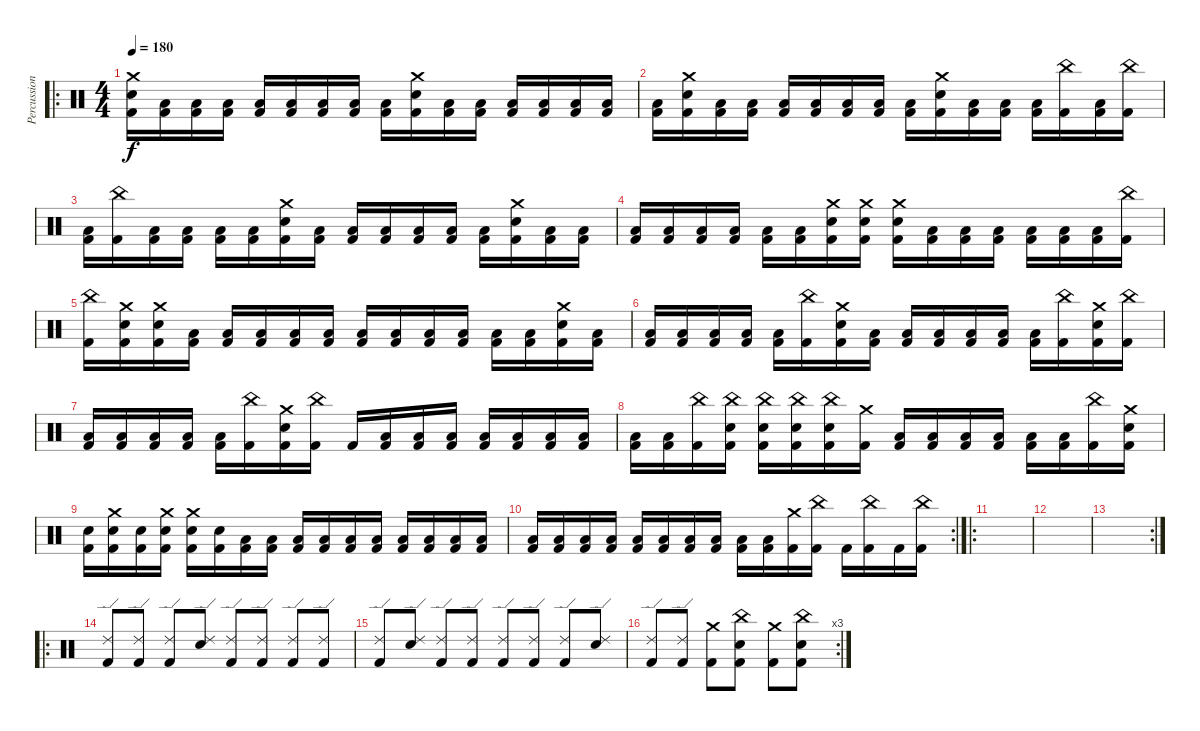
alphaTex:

\track ("Percussion" "Percussion") {instrument percussion}
\staff {score}
\articulation defaults
\ro
\ts (4 4)
\tempo 180
\clef neutral
\ks c
("Kick (hit) 2" "Snare (hit) 2" "Crash medium (hit)").16{dy f} ("Kick (hit) 2" "Low Tom (hit)").16 ("Kick (hit) 2" "Low Tom (hit)").16 ("Kick (hit) 2" "Low Floor Tom (hit)").16 ("Kick (hit) 2" "Low Floor Tom (hit)").16 ("Kick (hit) 2" "Low Tom (hit)").16 ("Kick (hit) 2" "Low Tom (hit)").16 ("Kick (hit) 2" "Low Floor Tom (hit)").16 ("Kick (hit) 2" "Low Floor Tom (hit)").16 ("Kick (hit) 2" "Snare (hit) 2" "Crash medium (hit)").16 ("Kick (hit) 2" "Low Tom (hit)").16 ("Kick (hit) 2" "Low Tom (hit)").16 ("Kick (hit) 2" "Low Floor Tom (hit)").16 ("Kick (hit) 2" "Low Floor Tom (hit)").16 ("Kick (hit) 2" "Low Tom (hit)").16 ("Kick (hit) 2" "Low Tom (hit)").16 |
("Kick (hit) 2" "Low Floor Tom (hit)").16 ("Kick (hit) 2" "Snare (hit) 2" "Crash medium (hit)").16 ("Kick (hit) 2" "Low Floor Tom (hit)").16 ("Kick (hit) 2" "Low Floor Tom (hit)").16 ("Kick (hit) 2" "Low Tom (hit)").16 ("Kick (hit) 2" "Low Tom (hit)").16 ("Kick (hit) 2" "Low Floor Tom (hit)").16 ("Kick (hit) 2" "Low Floor Tom (hit)").16 ("Kick (hit) 2" "Low Tom (hit)").16 ("Kick (hit) 2" "Snare (hit) 2" "Crash medium (hit)").16 ("Kick (hit) 2" "Low Tom (hit)").16 ("Kick (hit) 2" "Low Tom (hit)").16 ("Kick (hit) 2" "Low Floor Tom (hit)").16 ("Kick (hit) 2" "China (hit)").16 ("Kick (hit) 2" "Low Floor Tom (hit)").16 ("Kick (hit) 2" "China (hit)").16 |
("Kick (hit) 2" "Low Tom (hit)").16 ("Kick (hit) 2" "China (hit)").16 ("Kick (hit) 2" "Low Tom (hit)").16 ("Kick (hit) 2" "Low Floor Tom (hit)").16 ("Kick (hit) 2" "Low Floor Tom (hit)").16 ("Kick (hit) 2" "Low Tom (hit)").16 ("Kick (hit) 2" "Snare (hit) 2" "Crash medium (hit)").16 ("Kick (hit) 2" "Low Tom (hit)").16 ("Kick (hit) 2" "Low Floor Tom (hit)").16 ("Kick (hit) 2" "Low Floor Tom (hit)").16 ("Kick (hit) 2" "Low Tom (hit)").16 ("Kick (hit) 2" "Low Tom (hit)").16 ("Kick (hit) 2" "Low Tom (hit)").16 ("Kick (hit) 2" "Snare (hit) 2" "Crash medium (hit)").16 ("Kick (hit) 2" "Low Floor Tom (hit)").16 ("Kick (hit) 2" "Low Floor Tom (hit)").16 |
("Kick (hit) 2" "Low Tom (hit)").16 ("Kick (hit) 2" "Low Tom (hit)").16 ("Kick (hit) 2" "Low Tom (hit)").16 ("Kick (hit) 2" "Low Floor Tom (hit)").16 ("Kick (hit) 2" "Low Floor Tom (hit)").16 ("Kick (hit) 2" "Low Floor Tom (hit)").16 ("Kick (hit) 2" "Snare (hit) 2" "Crash medium (hit)").16 ("Kick (hit) 2" "Snare (hit) 2" "Crash medium (hit)").16 ("Kick (hit) 2" "Snare (hit) 2" "Crash medium (hit)").16 ("Kick (hit) 2" "Low Tom (hit)").16 ("Kick (hit) 2" "Low Tom (hit)").16 ("Kick (hit) 2" "Low Tom (hit)").16 ("Kick (hit) 2" "Low Floor Tom (hit)").16 ("Kick (hit) 2" "Low Floor Tom (hit)").16 ("Kick (hit) 2" "Low Floor Tom (hit)").16 ("Kick (hit) 2" "China (hit)").16 |
("Kick (hit) 2" "China (hit)").16 ("Kick (hit) 2" "Snare (hit) 2" "Crash medium (hit)").16 ("Kick (hit) 2" "Snare (hit) 2" "Crash medium (hit)").16 ("Kick (hit) 2" "Low Tom (hit)").16 ("Kick (hit) 2" "Low Tom (hit)").16 ("Kick (hit) 2" "Low Tom (hit)").16 ("Kick (hit) 2" "Low Floor Tom (hit)").16 ("Kick (hit) 2" "Low Floor Tom (hit)").16 ("Kick (hit) 2" "Low Floor Tom (hit)").16 ("Kick (hit) 2" "Low Floor Tom (hit)").16 ("Kick (hit) 2" "Low Tom (hit)").16 ("Kick (hit) 2" "Low Tom (hit)").16 ("Kick (hit) 2" "Low Tom (hit)").16 ("Kick (hit) 2" "Low Tom (hit)").16 ("Kick (hit) 2" "Snare (hit) 2" "Crash medium (hit)").16 ("Kick (hit) 2" "Low Floor Tom (hit)").16 |
("Kick (hit) 2" "Low Floor Tom (hit)").16 ("Kick (hit) 2" "Low Floor Tom (hit)").16 ("Kick (hit) 2" "Low Tom (hit)").16 ("Kick (hit) 2" "Low Tom (hit)").16 ("Kick (hit) 2" "Low Tom (hit)").16 ("Kick (hit) 2" "China (hit)").16 ("Kick (hit) 2" "Snare (hit) 2" "Crash medium (hit)").16 ("Kick (hit) 2" "Low Tom (hit)").16 ("Kick (hit) 2" "Low Tom (hit)").16 ("Kick (hit) 2" "Low Tom (hit)").16 ("Kick (hit) 2" "Low Floor Tom (hit)").16 ("Kick (hit) 2" "Low Floor Tom (hit)").16 ("Kick (hit) 2" "Low Floor Tom (hit)").16 ("Kick (hit) 2" "China (hit)").16 ("Kick (hit) 2" "Snare (hit) 2" "Crash medium (hit)").16 ("Kick (hit) 2" "China (hit)").16 |
("Kick (hit) 2" "Low Floor Tom (hit)").16 ("Kick (hit) 2" "Low Floor Tom (hit)").16 ("Kick (hit) 2" "Low Floor Tom (hit)").16 ("Kick (hit) 2" "Low Tom (hit)").16 ("Kick (hit) 2" "Low Tom (hit)").16 ("Kick (hit) 2" "China (hit)").16 ("Kick (hit) 2" "Snare (hit) 2" "Crash medium (hit)").16 ("Kick (hit) 2" "China (hit)").16 "Kick (hit) 2".16 ("Kick (hit) 2" "Low Tom (hit)").16 ("Kick (hit) 2" "Low Tom (hit)").16 ("Kick (hit) 2" "Low Tom (hit)").16 ("Kick (hit) 2" "Low Tom (hit)").16 ("Kick (hit) 2" "Low Floor Tom (hit)").16 ("Kick (hit) 2" "Low Floor Tom (hit)").16 ("Kick (hit) 2" "Low Floor Tom (hit)").16 |
("Kick (hit) 2" "Low Tom (hit)").16 ("Kick (hit) 2" "Low Tom (hit)").16 ("Kick (hit) 2" "China (hit)").16 ("Kick (hit) 2" "Snare (hit) 2" "China (hit)").16 ("Kick (hit) 2" "Snare (hit) 2" "China (hit)").16 ("Kick (hit) 2" "Snare (hit) 2" "China (hit)").16 ("Kick (hit) 2" "Snare (hit) 2" "China (hit)").16 ("Kick (hit) 2" "Crash medium (hit)").16 ("Kick (hit) 2" "Low Tom (hit)").16 ("Kick (hit) 2" "Low Tom (hit)").16 ("Kick (hit) 2" "Low Tom (hit)").16 ("Kick (hit) 2" "Low Floor Tom (hit)").16 ("Kick (hit) 2" "Low Floor Tom (hit)").16 ("Kick (hit) 2" "Low Floor Tom (hit)").16 ("Kick (hit) 2" "China (hit)").16 ("Kick (hit) 2" "Snare (hit) 2" "Crash medium (hit)").16 |
("Kick (hit) 2" "Snare (hit) 2").16 ("Kick (hit) 2" "Snare (hit) 2" "Crash medium (hit)").16 ("Kick (hit) 2" "Snare (hit) 2").16 ("Kick (hit) 2" "Snare (hit) 2" "Crash medium (hit)").16 ("Kick (hit) 2" "Snare (hit) 2" "Crash medium (hit)").16 ("Kick (hit) 2" "Snare (hit) 2").16 ("Kick (hit) 2" "Low Tom (hit)").16 ("Kick (hit) 2" "Low Floor Tom (hit)").16 ("Kick (hit) 2" "Low Tom (hit)").16 ("Kick (hit) 2" "Low Floor Tom (hit)").16 ("Kick (hit) 2" "Low Tom (hit)").16 ("Kick (hit) 2" "Low Floor Tom (hit)").16 ("Kick (hit) 2" "Low Tom (hit)").16 ("Kick (hit) 2" "Low Floor Tom (hit)").16 ("Kick (hit) 2" "Low Tom (hit)").16 ("Kick (hit) 2" "Low Floor Tom (hit)").16 |
\rc 2
("Kick (hit) 2" "Low Tom (hit)").16 ("Kick (hit) 2" "Low Tom (hit)").16 ("Kick (hit) 2" "Low Tom (hit)").16 ("Kick (hit) 2" "Low Floor Tom (hit)").16 ("Kick (hit) 2" "Low Floor Tom (hit)").16 ("Kick (hit) 2" "Low Floor Tom (hit)").16 ("Kick (hit) 2" "Low Floor Tom (hit)").16 ("Kick (hit) 2" "Low Tom (hit)").16 ("Kick (hit) 2" "Low Tom (hit)").16 ("Kick (hit) 2" "Low Tom (hit)").16 ("Kick (hit) 2" "Crash medium (hit)").16 ("Kick (hit) 2" "China (hit)").16 "Kick (hit) 2".16 ("Kick (hit) 2" "China (hit)").16 "Kick (hit) 2".16 ("Kick (hit) 2" "China (hit)").16 |
\ro
|
|
\rc 2
|
\ro
("Kick (hit) 2" "Ride (edge) 2").8 ("Kick (hit) 2" "Ride (edge) 2").8 ("Kick (hit) 2" "Ride (edge) 2").8 ("Snare (hit) 2" "Ride (edge) 2").8 ("Kick (hit) 2" "Ride (edge) 2").8 ("Kick (hit) 2" "Ride (edge) 2").8 ("Kick (hit) 2" "Ride (edge) 2").8 ("Kick (hit) 2" "Ride (edge) 2").8 |
("Kick (hit) 2" "Ride (edge) 2").8 ("Snare (hit) 2" "Ride (edge) 2").8 ("Kick (hit) 2" "Ride (edge) 2").8 ("Kick (hit) 2" "Ride (edge) 2").8 ("Kick (hit) 2" "Ride (edge) 2").8 ("Kick (hit) 2" "Ride (edge) 2").8 ("Kick (hit) 2" "Ride (edge) 2").8 ("Snare (hit) 2" "Ride (edge) 2").8 |
\rc 3
("Kick (hit) 2" "Ride (edge) 2").8 ("Kick (hit) 2" "Ride (edge) 2").8 ("Kick (hit) 2" "Crash medium (hit)").8 ("Kick (hit) 2" "Snare (hit) 2" "China (hit)").8 ("Kick (hit) 2" "Crash medium (hit)").8 ("Kick (hit) 2" "Snare (hit) 2" "China (hit)").8
